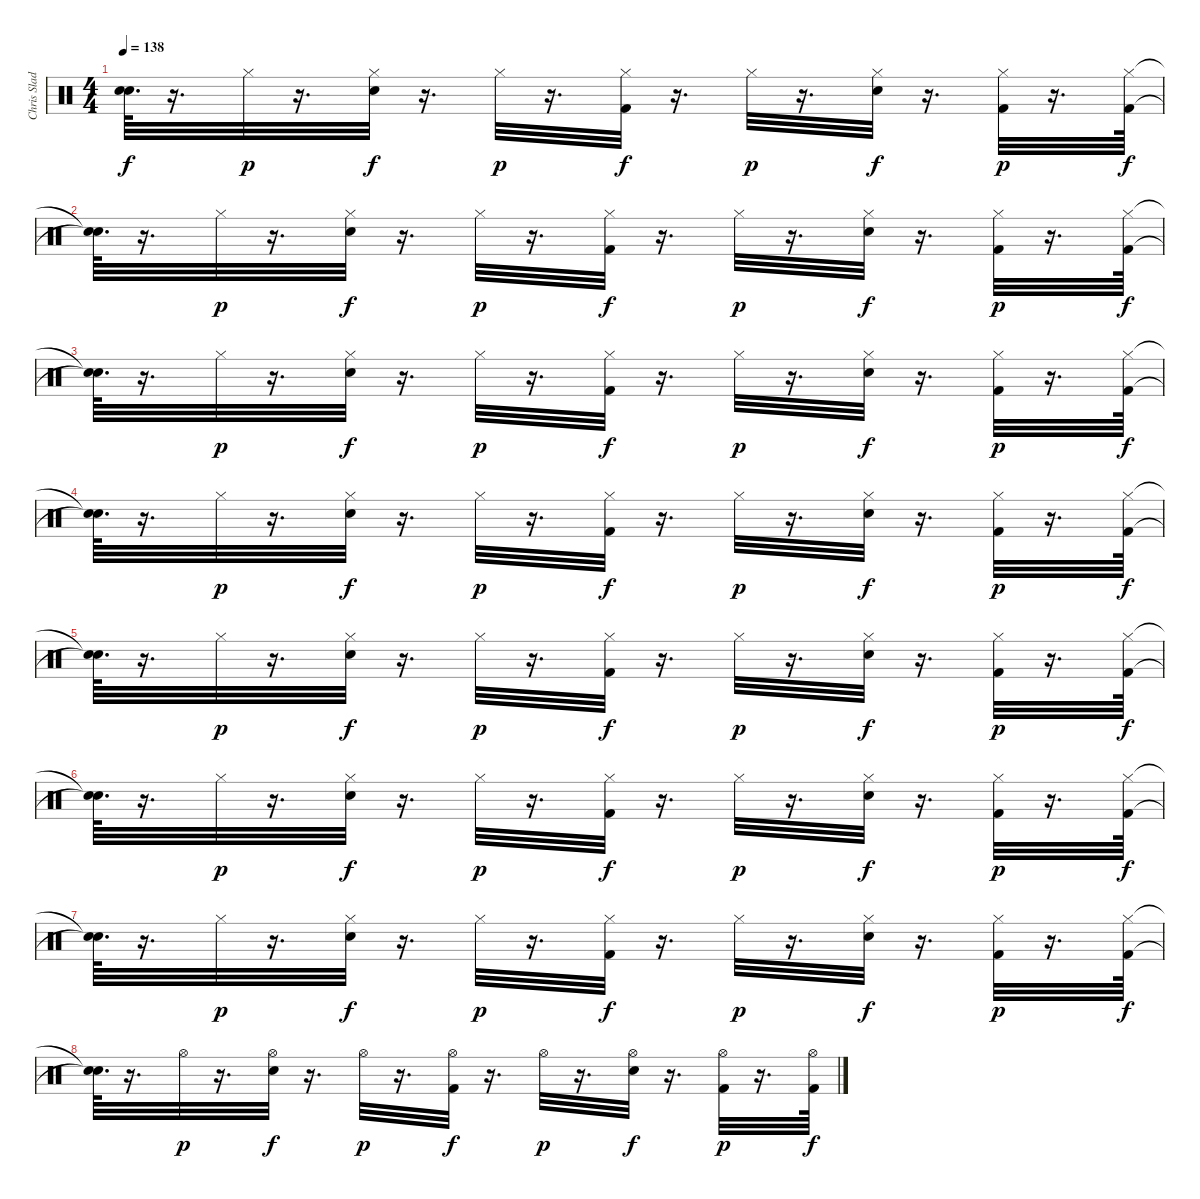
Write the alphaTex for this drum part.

\track ("Chris Slade" "Chris Slad") {instrument percussion}
\staff {score}
\articulation defaults
\ts (4 4)
\tempo 138
\clef neutral
\ks c
("Snare (hit)"{t} "Snare (hit)"{t}).64{d dy f} r.16{d} "Hi-Hat (closed)".32{dy p} r.16{d} ("Hi-Hat (closed)" "Electric Snare (hit)").32{dy f} r.16{d} "Hi-Hat (closed)".32{dy p} r.16{d} ("Hi-Hat (closed)" "Kick (hit) 2").32{dy f} r.16{d} "Hi-Hat (closed)".32{dy p} r.16{d} ("Hi-Hat (closed)" "Electric Snare (hit)").32{dy f} r.16{d} ("Hi-Hat (closed)" "Kick (hit) 2").32{dy p} r.16{d} ("Hi-Hat (closed)" "Kick (hit) 2").64{dy f} |
("Snare (hit)"{t} "Snare (hit)"{t}).64{d} r.16{d} "Hi-Hat (closed)".32{dy p} r.16{d} ("Hi-Hat (closed)" "Electric Snare (hit)").32{dy f} r.16{d} "Hi-Hat (closed)".32{dy p} r.16{d} ("Hi-Hat (closed)" "Kick (hit) 2").32{dy f} r.16{d} "Hi-Hat (closed)".32{dy p} r.16{d} ("Hi-Hat (closed)" "Electric Snare (hit)").32{dy f} r.16{d} ("Hi-Hat (closed)" "Kick (hit) 2").32{dy p} r.16{d} ("Hi-Hat (closed)" "Kick (hit) 2").64{dy f} |
("Snare (hit)"{t} "Snare (hit)"{t}).64{d} r.16{d} "Hi-Hat (closed)".32{dy p} r.16{d} ("Hi-Hat (closed)" "Electric Snare (hit)").32{dy f} r.16{d} "Hi-Hat (closed)".32{dy p} r.16{d} ("Hi-Hat (closed)" "Kick (hit) 2").32{dy f} r.16{d} "Hi-Hat (closed)".32{dy p} r.16{d} ("Hi-Hat (closed)" "Electric Snare (hit)").32{dy f} r.16{d} ("Hi-Hat (closed)" "Kick (hit) 2").32{dy p} r.16{d} ("Hi-Hat (closed)" "Kick (hit) 2").64{dy f} |
("Snare (hit)"{t} "Snare (hit)"{t}).64{d} r.16{d} "Hi-Hat (closed)".32{dy p} r.16{d} ("Hi-Hat (closed)" "Electric Snare (hit)").32{dy f} r.16{d} "Hi-Hat (closed)".32{dy p} r.16{d} ("Hi-Hat (closed)" "Kick (hit) 2").32{dy f} r.16{d} "Hi-Hat (closed)".32{dy p} r.16{d} ("Hi-Hat (closed)" "Electric Snare (hit)").32{dy f} r.16{d} ("Hi-Hat (closed)" "Kick (hit) 2").32{dy p} r.16{d} ("Hi-Hat (closed)" "Kick (hit) 2").64{dy f} |
("Snare (hit)"{t} "Snare (hit)"{t}).64{d} r.16{d} "Hi-Hat (closed)".32{dy p} r.16{d} ("Hi-Hat (closed)" "Electric Snare (hit)").32{dy f} r.16{d} "Hi-Hat (closed)".32{dy p} r.16{d} ("Hi-Hat (closed)" "Kick (hit) 2").32{dy f} r.16{d} "Hi-Hat (closed)".32{dy p} r.16{d} ("Hi-Hat (closed)" "Electric Snare (hit)").32{dy f} r.16{d} ("Hi-Hat (closed)" "Kick (hit) 2").32{dy p} r.16{d} ("Hi-Hat (closed)" "Kick (hit) 2").64{dy f} |
("Snare (hit)"{t} "Snare (hit)"{t}).64{d} r.16{d} "Hi-Hat (closed)".32{dy p} r.16{d} ("Hi-Hat (closed)" "Electric Snare (hit)").32{dy f} r.16{d} "Hi-Hat (closed)".32{dy p} r.16{d} ("Hi-Hat (closed)" "Kick (hit) 2").32{dy f} r.16{d} "Hi-Hat (closed)".32{dy p} r.16{d} ("Hi-Hat (closed)" "Electric Snare (hit)").32{dy f} r.16{d} ("Hi-Hat (closed)" "Kick (hit) 2").32{dy p} r.16{d} ("Hi-Hat (closed)" "Kick (hit) 2").64{dy f} |
("Snare (hit)"{t} "Snare (hit)"{t}).64{d} r.16{d} "Hi-Hat (closed)".32{dy p} r.16{d} ("Hi-Hat (closed)" "Electric Snare (hit)").32{dy f} r.16{d} "Hi-Hat (closed)".32{dy p} r.16{d} ("Hi-Hat (closed)" "Kick (hit) 2").32{dy f} r.16{d} "Hi-Hat (closed)".32{dy p} r.16{d} ("Hi-Hat (closed)" "Electric Snare (hit)").32{dy f} r.16{d} ("Hi-Hat (closed)" "Kick (hit) 2").32{dy p} r.16{d} ("Hi-Hat (closed)" "Kick (hit) 2").64{dy f} |
("Snare (hit)"{t} "Snare (hit)"{t}).64{d} r.16{d} "Hi-Hat (open)".32{dy p} r.16{d} ("Hi-Hat (open)" "Electric Snare (hit)").32{dy f} r.16{d} "Hi-Hat (open)".32{dy p} r.16{d} ("Hi-Hat (open)" "Kick (hit) 2").32{dy f} r.16{d} "Hi-Hat (open)".32{dy p} r.16{d} ("Hi-Hat (open)" "Electric Snare (hit)").32{dy f} r.16{d} ("Hi-Hat (open)" "Kick (hit) 2").32{dy p} r.16{d} ("Hi-Hat (open)" "Kick (hit) 2").64{dy f}
